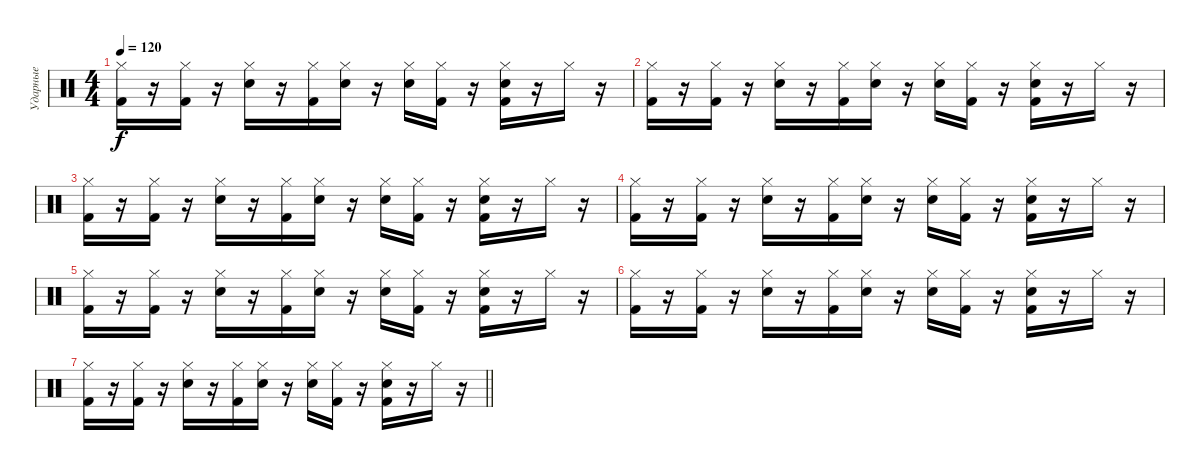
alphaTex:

\track ("Ударные" "Ударные") {instrument percussion}
\staff {score}
\articulation defaults
\ts (4 4)
\tempo 120
\clef neutral
\ks c
("Hi-Hat (closed)" "Kick (hit) 2").16{dy f} r.16 ("Hi-Hat (closed)" "Kick (hit) 2").16 r.16 ("Hi-Hat (closed)" "Electric Snare (hit)").16 r.16 ("Hi-Hat (closed)" "Kick (hit) 2").16 ("Hi-Hat (closed)" "Electric Snare (hit)").16 r.16 ("Hi-Hat (closed)" "Electric Snare (hit)").16 ("Hi-Hat (closed)" "Kick (hit) 2").16 r.16 ("Hi-Hat (closed)" "Electric Snare (hit)" "Kick (hit) 2").16 r.16 "Hi-Hat (closed)".16 r.16 |
("Hi-Hat (closed)" "Kick (hit) 2").16 r.16 ("Hi-Hat (closed)" "Kick (hit) 2").16 r.16 ("Hi-Hat (closed)" "Electric Snare (hit)").16 r.16 ("Hi-Hat (closed)" "Kick (hit) 2").16 ("Hi-Hat (closed)" "Electric Snare (hit)").16 r.16 ("Hi-Hat (closed)" "Electric Snare (hit)").16 ("Hi-Hat (closed)" "Kick (hit) 2").16 r.16 ("Hi-Hat (closed)" "Electric Snare (hit)" "Kick (hit) 2").16 r.16 "Hi-Hat (closed)".16 r.16 |
("Hi-Hat (closed)" "Kick (hit) 2").16 r.16 ("Hi-Hat (closed)" "Kick (hit) 2").16 r.16 ("Hi-Hat (closed)" "Electric Snare (hit)").16 r.16 ("Hi-Hat (closed)" "Kick (hit) 2").16 ("Hi-Hat (closed)" "Electric Snare (hit)").16 r.16 ("Hi-Hat (closed)" "Electric Snare (hit)").16 ("Hi-Hat (closed)" "Kick (hit) 2").16 r.16 ("Hi-Hat (closed)" "Electric Snare (hit)" "Kick (hit) 2").16 r.16 "Hi-Hat (closed)".16 r.16 |
("Hi-Hat (closed)" "Kick (hit) 2").16 r.16 ("Hi-Hat (closed)" "Kick (hit) 2").16 r.16 ("Hi-Hat (closed)" "Electric Snare (hit)").16 r.16 ("Hi-Hat (closed)" "Kick (hit) 2").16 ("Hi-Hat (closed)" "Electric Snare (hit)").16 r.16 ("Hi-Hat (closed)" "Electric Snare (hit)").16 ("Hi-Hat (closed)" "Kick (hit) 2").16 r.16 ("Hi-Hat (closed)" "Electric Snare (hit)" "Kick (hit) 2").16 r.16 "Hi-Hat (closed)".16 r.16 |
("Hi-Hat (closed)" "Kick (hit) 2").16 r.16 ("Hi-Hat (closed)" "Kick (hit) 2").16 r.16 ("Hi-Hat (closed)" "Electric Snare (hit)").16 r.16 ("Hi-Hat (closed)" "Kick (hit) 2").16 ("Hi-Hat (closed)" "Electric Snare (hit)").16 r.16 ("Hi-Hat (closed)" "Electric Snare (hit)").16 ("Hi-Hat (closed)" "Kick (hit) 2").16 r.16 ("Hi-Hat (closed)" "Electric Snare (hit)" "Kick (hit) 2").16 r.16 "Hi-Hat (closed)".16 r.16 |
("Hi-Hat (closed)" "Kick (hit) 2").16 r.16 ("Hi-Hat (closed)" "Kick (hit) 2").16 r.16 ("Hi-Hat (closed)" "Electric Snare (hit)").16 r.16 ("Hi-Hat (closed)" "Kick (hit) 2").16 ("Hi-Hat (closed)" "Electric Snare (hit)").16 r.16 ("Hi-Hat (closed)" "Electric Snare (hit)").16 ("Hi-Hat (closed)" "Kick (hit) 2").16 r.16 ("Hi-Hat (closed)" "Electric Snare (hit)" "Kick (hit) 2").16 r.16 "Hi-Hat (closed)".16 r.16 |
\barLineRight lightlight
("Hi-Hat (closed)" "Kick (hit) 2").16 r.16 ("Hi-Hat (closed)" "Kick (hit) 2").16 r.16 ("Hi-Hat (closed)" "Electric Snare (hit)").16 r.16 ("Hi-Hat (closed)" "Kick (hit) 2").16 ("Hi-Hat (closed)" "Electric Snare (hit)").16 r.16 ("Hi-Hat (closed)" "Electric Snare (hit)").16 ("Hi-Hat (closed)" "Kick (hit) 2").16 r.16 ("Hi-Hat (closed)" "Electric Snare (hit)" "Kick (hit) 2").16 r.16 "Hi-Hat (closed)".16 r.16
